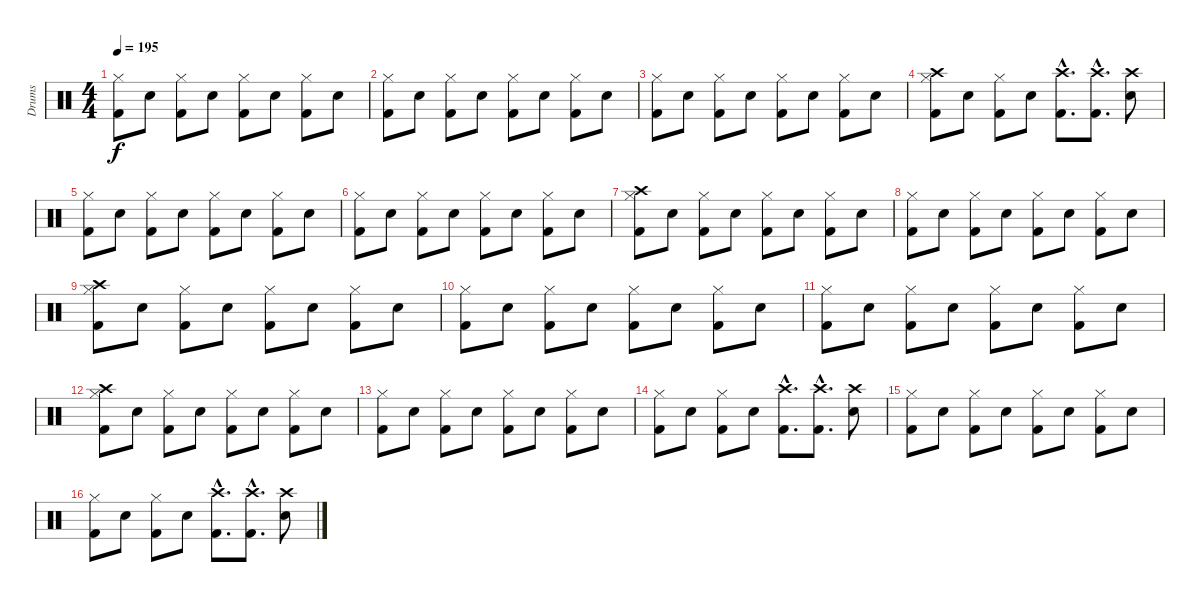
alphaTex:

\track ("Drums" "Drums") {instrument percussion}
\staff {score}
\articulation defaults
\ts (4 4)
\tempo 195
\clef neutral
\ks c
("Kick (hit) 2" "Hi-Hat (closed)").8{dy f} "Snare (hit) 2".8 ("Kick (hit) 2" "Hi-Hat (closed)").8 "Snare (hit) 2".8 ("Kick (hit) 2" "Hi-Hat (closed)").8 "Snare (hit) 2".8 ("Kick (hit) 2" "Hi-Hat (closed)").8 "Snare (hit) 2".8 |
("Kick (hit) 2" "Hi-Hat (closed)").8 "Snare (hit) 2".8 ("Kick (hit) 2" "Hi-Hat (closed)").8 "Snare (hit) 2".8 ("Kick (hit) 2" "Hi-Hat (closed)").8 "Snare (hit) 2".8 ("Kick (hit) 2" "Hi-Hat (closed)").8 "Snare (hit) 2".8 |
("Kick (hit) 2" "Hi-Hat (closed)").8 "Snare (hit) 2".8 ("Kick (hit) 2" "Hi-Hat (closed)").8 "Snare (hit) 2".8 ("Kick (hit) 2" "Hi-Hat (closed)").8 "Snare (hit) 2".8 ("Kick (hit) 2" "Hi-Hat (closed)").8 "Snare (hit) 2".8 |
("Crash high (hit)" "Kick (hit) 2" "Hi-Hat (closed)").8 "Snare (hit) 2".8 ("Kick (hit) 2" "Hi-Hat (closed)").8 "Snare (hit) 2".8 ("Kick (hit) 2"{hac} "Crash high (hit)"{hac}).8{d} ("Kick (hit) 2"{hac} "Crash high (hit)"{hac}).8{d} ("Snare (hit) 2" "Crash high (hit)").8 |
("Kick (hit) 2" "Hi-Hat (closed)").8 "Snare (hit) 2".8 ("Kick (hit) 2" "Hi-Hat (closed)").8 "Snare (hit) 2".8 ("Kick (hit) 2" "Hi-Hat (closed)").8 "Snare (hit) 2".8 ("Kick (hit) 2" "Hi-Hat (closed)").8 "Snare (hit) 2".8 |
("Kick (hit) 2" "Hi-Hat (closed)").8 "Snare (hit) 2".8 ("Kick (hit) 2" "Hi-Hat (closed)").8 "Snare (hit) 2".8 ("Kick (hit) 2" "Hi-Hat (closed)").8 "Snare (hit) 2".8 ("Kick (hit) 2" "Hi-Hat (closed)").8 "Snare (hit) 2".8 |
("Crash high (hit)" "Kick (hit) 2" "Hi-Hat (closed)").8 "Snare (hit) 2".8 ("Kick (hit) 2" "Hi-Hat (closed)").8 "Snare (hit) 2".8 ("Kick (hit) 2" "Hi-Hat (closed)").8 "Snare (hit) 2".8 ("Kick (hit) 2" "Hi-Hat (closed)").8 "Snare (hit) 2".8 |
("Kick (hit) 2" "Hi-Hat (closed)").8 "Snare (hit) 2".8 ("Kick (hit) 2" "Hi-Hat (closed)").8 "Snare (hit) 2".8 ("Kick (hit) 2" "Hi-Hat (closed)").8 "Snare (hit) 2".8 ("Kick (hit) 2" "Hi-Hat (closed)").8 "Snare (hit) 2".8 |
("Crash high (hit)" "Kick (hit) 2" "Hi-Hat (closed)").8 "Snare (hit) 2".8 ("Kick (hit) 2" "Hi-Hat (closed)").8 "Snare (hit) 2".8 ("Kick (hit) 2" "Hi-Hat (closed)").8 "Snare (hit) 2".8 ("Kick (hit) 2" "Hi-Hat (closed)").8 "Snare (hit) 2".8 |
("Kick (hit) 2" "Hi-Hat (closed)").8 "Snare (hit) 2".8 ("Kick (hit) 2" "Hi-Hat (closed)").8 "Snare (hit) 2".8 ("Kick (hit) 2" "Hi-Hat (closed)").8 "Snare (hit) 2".8 ("Kick (hit) 2" "Hi-Hat (closed)").8 "Snare (hit) 2".8 |
("Kick (hit) 2" "Hi-Hat (closed)").8 "Snare (hit) 2".8 ("Kick (hit) 2" "Hi-Hat (closed)").8 "Snare (hit) 2".8 ("Kick (hit) 2" "Hi-Hat (closed)").8 "Snare (hit) 2".8 ("Kick (hit) 2" "Hi-Hat (closed)").8 "Snare (hit) 2".8 |
("Crash high (hit)" "Kick (hit) 2" "Hi-Hat (closed)").8 "Snare (hit) 2".8 ("Kick (hit) 2" "Hi-Hat (closed)").8 "Snare (hit) 2".8 ("Kick (hit) 2" "Hi-Hat (closed)").8 "Snare (hit) 2".8 ("Kick (hit) 2" "Hi-Hat (closed)").8 "Snare (hit) 2".8 |
("Kick (hit) 2" "Hi-Hat (closed)").8 "Snare (hit) 2".8 ("Kick (hit) 2" "Hi-Hat (closed)").8 "Snare (hit) 2".8 ("Kick (hit) 2" "Hi-Hat (closed)").8 "Snare (hit) 2".8 ("Kick (hit) 2" "Hi-Hat (closed)").8 "Snare (hit) 2".8 |
("Kick (hit) 2" "Hi-Hat (closed)").8 "Snare (hit) 2".8 ("Kick (hit) 2" "Hi-Hat (closed)").8 "Snare (hit) 2".8 ("Kick (hit) 2"{hac} "Crash high (hit)"{hac}).8{d} ("Kick (hit) 2"{hac} "Crash high (hit)"{hac}).8{d} ("Snare (hit) 2" "Crash high (hit)").8 |
("Kick (hit) 2" "Hi-Hat (closed)").8 "Snare (hit) 2".8 ("Kick (hit) 2" "Hi-Hat (closed)").8 "Snare (hit) 2".8 ("Kick (hit) 2" "Hi-Hat (closed)").8 "Snare (hit) 2".8 ("Kick (hit) 2" "Hi-Hat (closed)").8 "Snare (hit) 2".8 |
("Kick (hit) 2" "Hi-Hat (closed)").8 "Snare (hit) 2".8 ("Kick (hit) 2" "Hi-Hat (closed)").8 "Snare (hit) 2".8 ("Kick (hit) 2"{hac} "Crash high (hit)"{hac}).8{d} ("Kick (hit) 2"{hac} "Crash high (hit)"{hac}).8{d} ("Snare (hit) 2" "Crash high (hit)").8
